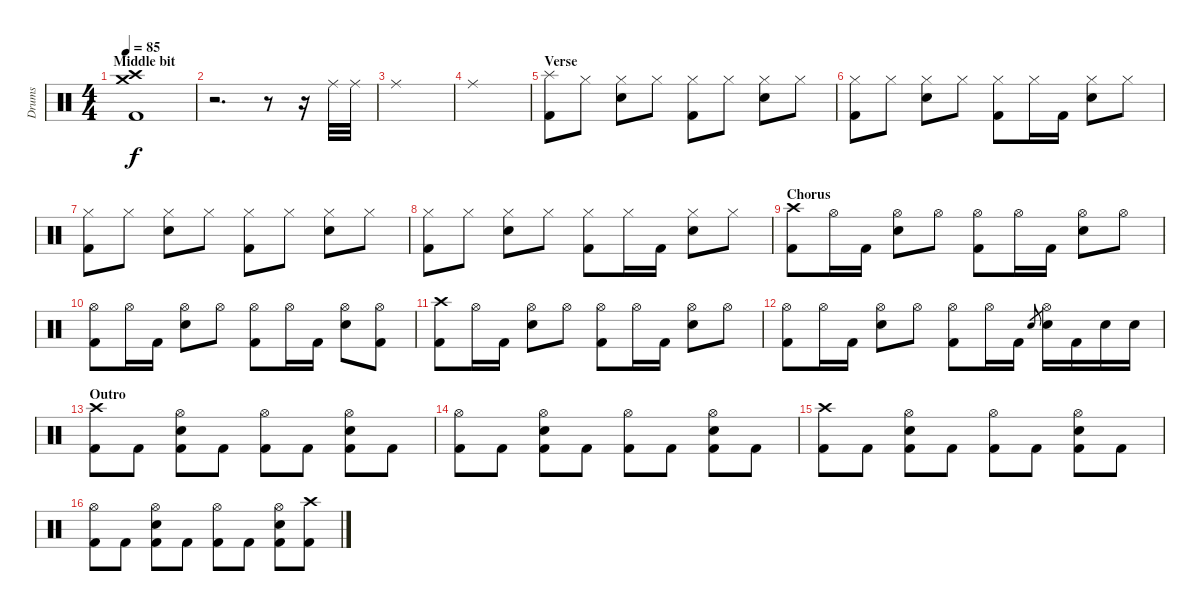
\track ("Drums" "Drums") {instrument percussion}
\staff {score}
\articulation defaults
\ts (4 4)
\section ("" "Middle bit")
\tempo 85
\clef neutral
\ks c
("Crash high (hit)" "Crash medium (hit)" "Kick (hit) 2").1{dy f} |
r.2{d} r.8 r.16 "Ride (middle)".32 "Ride (middle)".32 |
"Ride (middle)".1 |
"Ride (middle)".1 |
\section ("" "Verse")
("Splash (hit)" "Kick (hit) 2").8 "Hi-Hat (closed)".8 ("Hi-Hat (closed)" "Electric Snare (hit)").8 "Hi-Hat (closed)".8 ("Hi-Hat (closed)" "Kick (hit) 2").8 "Hi-Hat (closed)".8 ("Hi-Hat (closed)" "Electric Snare (hit)").8 "Hi-Hat (closed)".8 |
("Hi-Hat (closed)" "Kick (hit) 2").8 "Hi-Hat (closed)".8 ("Hi-Hat (closed)" "Electric Snare (hit)").8 "Hi-Hat (closed)".8 ("Hi-Hat (closed)" "Kick (hit) 2").8 "Hi-Hat (closed)".16 "Kick (hit) 2".16 ("Hi-Hat (closed)" "Electric Snare (hit)").8 "Hi-Hat (closed)".8 |
("Hi-Hat (closed)" "Kick (hit) 2").8 "Hi-Hat (closed)".8 ("Hi-Hat (closed)" "Electric Snare (hit)").8 "Hi-Hat (closed)".8 ("Hi-Hat (closed)" "Kick (hit) 2").8 "Hi-Hat (closed)".8 ("Hi-Hat (closed)" "Electric Snare (hit)").8 "Hi-Hat (closed)".8 |
("Hi-Hat (closed)" "Kick (hit) 2").8 "Hi-Hat (closed)".8 ("Hi-Hat (closed)" "Electric Snare (hit)").8 "Hi-Hat (closed)".8 ("Hi-Hat (closed)" "Kick (hit) 2").8 "Hi-Hat (closed)".16 "Kick (hit) 2".16 ("Hi-Hat (closed)" "Electric Snare (hit)").8 "Hi-Hat (closed)".8 |
\section ("" "Chorus")
("Crash high (hit)" "Kick (hit) 2").8 "Hi-Hat (open)".16 "Kick (hit) 2".16 ("Hi-Hat (open)" "Electric Snare (hit)").8 "Hi-Hat (open)".8 ("Hi-Hat (open)" "Kick (hit) 2").8 "Hi-Hat (open)".16 "Kick (hit) 2".16 ("Hi-Hat (open)" "Electric Snare (hit)").8 "Hi-Hat (open)".8 |
("Hi-Hat (open)" "Kick (hit) 2").8 "Hi-Hat (open)".16 "Kick (hit) 2".16 ("Hi-Hat (open)" "Electric Snare (hit)").8 "Hi-Hat (open)".8 ("Hi-Hat (open)" "Kick (hit) 2").8 "Hi-Hat (open)".16 "Kick (hit) 2".16 ("Hi-Hat (open)" "Electric Snare (hit)").8 ("Hi-Hat (open)" "Kick (hit) 2").8 |
("Crash high (hit)" "Kick (hit) 2").8 "Hi-Hat (open)".16 "Kick (hit) 2".16 ("Hi-Hat (open)" "Electric Snare (hit)").8 "Hi-Hat (open)".8 ("Hi-Hat (open)" "Kick (hit) 2").8 "Hi-Hat (open)".16 "Kick (hit) 2".16 ("Hi-Hat (open)" "Electric Snare (hit)").8 "Hi-Hat (open)".8 |
("Hi-Hat (open)" "Kick (hit) 2").8 "Hi-Hat (open)".16 "Kick (hit) 2".16 ("Hi-Hat (open)" "Electric Snare (hit)").8 "Hi-Hat (open)".8 ("Hi-Hat (open)" "Kick (hit) 2").8 "Hi-Hat (open)".16 "Kick (hit) 2".16 "Electric Snare (hit)".8{gr} ("Hi-Hat (open)" "Electric Snare (hit)").16 "Kick (hit) 2".16 "Electric Snare (hit)".16 "Electric Snare (hit)".16 |
\section ("" "Outro")
("Crash high (hit)" "Kick (hit) 2").8 "Kick (hit) 2".8 ("Hi-Hat (open)" "Electric Snare (hit)" "Kick (hit) 2").8 "Kick (hit) 2".8 ("Hi-Hat (open)" "Kick (hit) 2").8 "Kick (hit) 2".8 ("Hi-Hat (open)" "Electric Snare (hit)" "Kick (hit) 2").8 "Kick (hit) 2".8 |
("Hi-Hat (open)" "Kick (hit) 2").8 "Kick (hit) 2".8 ("Hi-Hat (open)" "Electric Snare (hit)" "Kick (hit) 2").8 "Kick (hit) 2".8 ("Hi-Hat (open)" "Kick (hit) 2").8 "Kick (hit) 2".8 ("Hi-Hat (open)" "Electric Snare (hit)" "Kick (hit) 2").8 "Kick (hit) 2".8 |
("Crash high (hit)" "Kick (hit) 2").8 "Kick (hit) 2".8 ("Hi-Hat (open)" "Electric Snare (hit)" "Kick (hit) 2").8 "Kick (hit) 2".8 ("Hi-Hat (open)" "Kick (hit) 2").8 "Kick (hit) 2".8 ("Hi-Hat (open)" "Electric Snare (hit)" "Kick (hit) 2").8 "Kick (hit) 2".8 |
("Hi-Hat (open)" "Kick (hit) 2").8 "Kick (hit) 2".8 ("Hi-Hat (open)" "Electric Snare (hit)" "Kick (hit) 2").8 "Kick (hit) 2".8 ("Hi-Hat (open)" "Kick (hit) 2").8 "Kick (hit) 2".8 ("Hi-Hat (open)" "Electric Snare (hit)" "Kick (hit) 2").8 ("Crash high (hit)" "Kick (hit) 2").8
